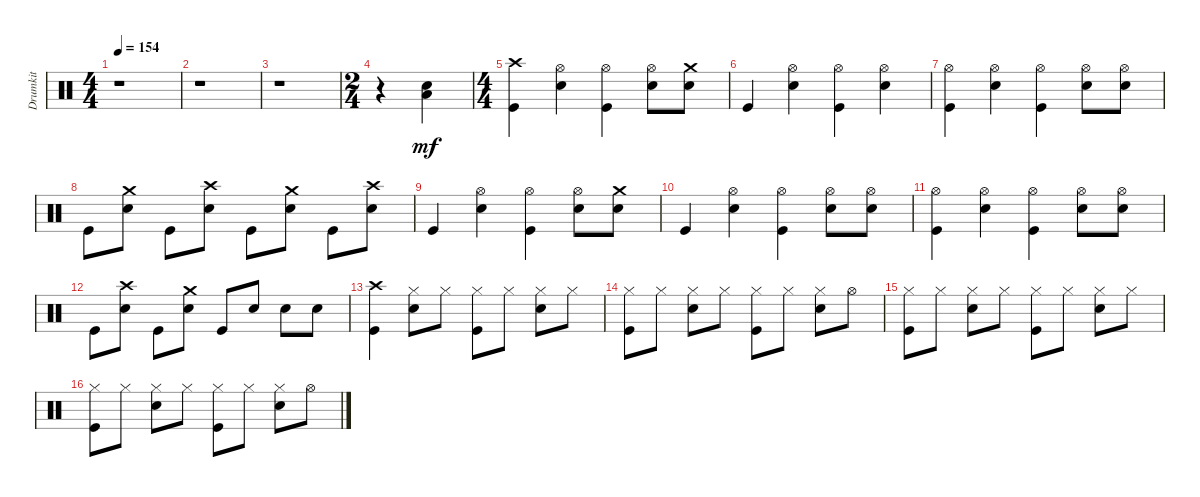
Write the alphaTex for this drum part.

\track ("Drumkit" "Drumkit") {instrument percussion}
\staff {score}
\articulation defaults
\ts (4 4)
\tempo 154
\clef neutral
\ks c
r.1{dy mf} |
r.1 |
r.1 |
\ts (2 4)
r.4 ("Snare (hit) 2" "Low Tom (hit)").4 |
\ts (4 4)
("Kick (hit)" "Crash high (hit)").4 ("Snare (hit) 2" "Hi-Hat (open)").4 ("Kick (hit)" "Hi-Hat (open)").4 ("Snare (hit) 2" "Hi-Hat (open)").8 ("Snare (hit) 2" "Crash medium (hit)").8 |
"Kick (hit)".4 ("Snare (hit) 2" "Hi-Hat (open)").4 ("Kick (hit)" "Hi-Hat (open)").4 ("Snare (hit) 2" "Hi-Hat (open)").4 |
("Kick (hit)" "Hi-Hat (open)").4 ("Snare (hit) 2" "Hi-Hat (open)").4 ("Kick (hit)" "Hi-Hat (open)").4 ("Snare (hit) 2" "Hi-Hat (open)").8 ("Snare (hit) 2" "Hi-Hat (open)").8 |
"Kick (hit)".8 ("Snare (hit) 2" "Crash medium (hit)").8 "Kick (hit)".8 ("Snare (hit) 2" "Crash high (hit)").8 "Kick (hit)".8 ("Snare (hit) 2" "Crash medium (hit)").8 "Kick (hit)".8 ("Snare (hit) 2" "Crash high (hit)").8 |
"Kick (hit)".4 ("Snare (hit) 2" "Hi-Hat (open)").4 ("Kick (hit)" "Hi-Hat (open)").4 ("Snare (hit) 2" "Hi-Hat (open)").8 ("Snare (hit) 2" "Crash medium (hit)").8 |
"Kick (hit)".4 ("Snare (hit) 2" "Hi-Hat (open)").4 ("Kick (hit)" "Hi-Hat (open)").4 ("Snare (hit) 2" "Hi-Hat (open)").8 ("Snare (hit) 2" "Hi-Hat (open)").8 |
("Kick (hit)" "Hi-Hat (open)").4 ("Snare (hit) 2" "Hi-Hat (open)").4 ("Kick (hit)" "Hi-Hat (open)").4 ("Snare (hit) 2" "Hi-Hat (open)").8 ("Snare (hit) 2" "Hi-Hat (open)").8 |
"Kick (hit)".8 ("Snare (hit) 2" "Crash high (hit)").8 "Kick (hit)".8 ("Snare (hit) 2" "Crash medium (hit)").8 "Kick (hit)".8 "Snare (hit) 2".8 "Snare (hit) 2".8 "Snare (hit) 2".8 |
("Kick (hit)" "Crash high (hit)").4 ("Snare (hit) 2" "Hi-Hat (closed)").8 "Hi-Hat (closed)".8 ("Kick (hit)" "Hi-Hat (closed)").8 "Hi-Hat (closed)".8 ("Snare (hit) 2" "Hi-Hat (closed)").8 "Hi-Hat (closed)".8 |
("Kick (hit)" "Hi-Hat (closed)").8 "Hi-Hat (closed)".8 ("Snare (hit) 2" "Hi-Hat (closed)").8 "Hi-Hat (closed)".8 ("Kick (hit)" "Hi-Hat (closed)").8 "Hi-Hat (closed)".8 ("Snare (hit) 2" "Hi-Hat (closed)").8 "Hi-Hat (open)".8 |
("Kick (hit)" "Hi-Hat (closed)").8 "Hi-Hat (closed)".8 ("Snare (hit) 2" "Hi-Hat (closed)").8 "Hi-Hat (closed)".8 ("Kick (hit)" "Hi-Hat (closed)").8 "Hi-Hat (closed)".8 ("Snare (hit) 2" "Hi-Hat (closed)").8 "Hi-Hat (closed)".8 |
("Kick (hit)" "Hi-Hat (closed)").8 "Hi-Hat (closed)".8 ("Snare (hit) 2" "Hi-Hat (closed)").8 "Hi-Hat (closed)".8 ("Kick (hit)" "Hi-Hat (closed)").8 "Hi-Hat (closed)".8 ("Snare (hit) 2" "Hi-Hat (closed)").8 "Hi-Hat (open)".8
